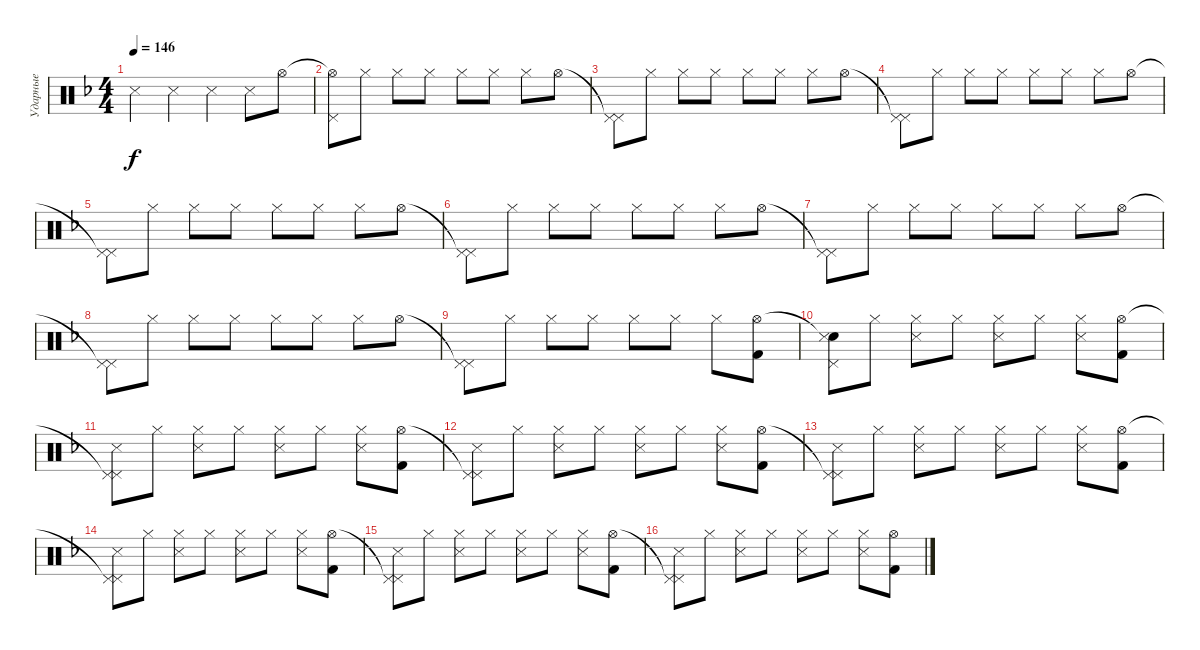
\track ("Ударные" "Ударные") {instrument percussion}
\staff {score}
\articulation defaults
\ts (4 4)
\tempo 146
\clef neutral
\ks f "Snare (side stick) 3".4{dy f} "Snare (side stick) 3".4 "Snare (side stick) 3".4 "Snare (side stick) 3".8 "Hi-Hat (open)".8
|
("Hi-Hat (open)"{t} "Pedal Hi-Hat (hit)").8 "Hi-Hat (closed)".8 "Hi-Hat (closed)".8 "Hi-Hat (closed)".8 "Hi-Hat (closed)".8 "Hi-Hat (closed)".8 "Hi-Hat (closed)".8 "Hi-Hat (open)".8 |
("Pedal Hi-Hat (hit)"{t} "Pedal Hi-Hat (hit)").8 "Hi-Hat (closed)".8 "Hi-Hat (closed)".8 "Hi-Hat (closed)".8 "Hi-Hat (closed)".8 "Hi-Hat (closed)".8 "Hi-Hat (closed)".8 "Hi-Hat (open)".8 |
("Pedal Hi-Hat (hit)"{t} "Pedal Hi-Hat (hit)").8 "Hi-Hat (closed)".8 "Hi-Hat (closed)".8 "Hi-Hat (closed)".8 "Hi-Hat (closed)".8 "Hi-Hat (closed)".8 "Hi-Hat (closed)".8 "Hi-Hat (open)".8 |
("Pedal Hi-Hat (hit)"{t} "Pedal Hi-Hat (hit)").8 "Hi-Hat (closed)".8 "Hi-Hat (closed)".8 "Hi-Hat (closed)".8 "Hi-Hat (closed)".8 "Hi-Hat (closed)".8 "Hi-Hat (closed)".8 "Hi-Hat (open)".8 |
("Pedal Hi-Hat (hit)"{t} "Pedal Hi-Hat (hit)").8 "Hi-Hat (closed)".8 "Hi-Hat (closed)".8 "Hi-Hat (closed)".8 "Hi-Hat (closed)".8 "Hi-Hat (closed)".8 "Hi-Hat (closed)".8 "Hi-Hat (open)".8 |
("Pedal Hi-Hat (hit)"{t} "Pedal Hi-Hat (hit)").8 "Hi-Hat (closed)".8 "Hi-Hat (closed)".8 "Hi-Hat (closed)".8 "Hi-Hat (closed)".8 "Hi-Hat (closed)".8 "Hi-Hat (closed)".8 "Hi-Hat (open)".8 |
("Pedal Hi-Hat (hit)"{t} "Pedal Hi-Hat (hit)").8 "Hi-Hat (closed)".8 "Hi-Hat (closed)".8 "Hi-Hat (closed)".8 "Hi-Hat (closed)".8 "Hi-Hat (closed)".8 "Hi-Hat (closed)".8 "Hi-Hat (open)".8 |
("Pedal Hi-Hat (hit)"{t} "Pedal Hi-Hat (hit)").8 "Hi-Hat (closed)".8 "Hi-Hat (closed)".8 "Hi-Hat (closed)".8 "Hi-Hat (closed)".8 "Hi-Hat (closed)".8 "Hi-Hat (closed)".8 ("Hi-Hat (open)" "Kick (hit) 2").8 |
("Snare (hit)"{t} "Pedal Hi-Hat (hit)" "Snare (side stick) 3").8 "Hi-Hat (closed)".8 ("Hi-Hat (closed)" "Snare (side stick) 3").8 "Hi-Hat (closed)".8 ("Hi-Hat (closed)" "Snare (side stick) 3").8 "Hi-Hat (closed)".8 ("Hi-Hat (closed)" "Snare (side stick) 3").8 ("Hi-Hat (open)" "Kick (hit) 2").8 |
("Pedal Hi-Hat (hit)"{t} "Pedal Hi-Hat (hit)" "Snare (side stick) 3").8 "Hi-Hat (closed)".8 ("Hi-Hat (closed)" "Snare (side stick) 3").8 "Hi-Hat (closed)".8 ("Hi-Hat (closed)" "Snare (side stick) 3").8 "Hi-Hat (closed)".8 ("Hi-Hat (closed)" "Snare (side stick) 3").8 ("Hi-Hat (open)" "Kick (hit) 2").8 |
("Pedal Hi-Hat (hit)"{t} "Pedal Hi-Hat (hit)" "Snare (side stick) 3").8 "Hi-Hat (closed)".8 ("Hi-Hat (closed)" "Snare (side stick) 3").8 "Hi-Hat (closed)".8 ("Hi-Hat (closed)" "Snare (side stick) 3").8 "Hi-Hat (closed)".8 ("Hi-Hat (closed)" "Snare (side stick) 3").8 ("Hi-Hat (open)" "Kick (hit) 2").8 |
("Pedal Hi-Hat (hit)"{t} "Pedal Hi-Hat (hit)" "Snare (side stick) 3").8 "Hi-Hat (closed)".8 ("Hi-Hat (closed)" "Snare (side stick) 3").8 "Hi-Hat (closed)".8 ("Hi-Hat (closed)" "Snare (side stick) 3").8 "Hi-Hat (closed)".8 ("Hi-Hat (closed)" "Snare (side stick) 3").8 ("Hi-Hat (open)" "Kick (hit) 2").8 |
("Pedal Hi-Hat (hit)"{t} "Pedal Hi-Hat (hit)" "Snare (side stick) 3").8 "Hi-Hat (closed)".8 ("Hi-Hat (closed)" "Snare (side stick) 3").8 "Hi-Hat (closed)".8 ("Hi-Hat (closed)" "Snare (side stick) 3").8 "Hi-Hat (closed)".8 ("Hi-Hat (closed)" "Snare (side stick) 3").8 ("Hi-Hat (open)" "Kick (hit) 2").8 |
("Pedal Hi-Hat (hit)"{t} "Pedal Hi-Hat (hit)" "Snare (side stick) 3").8 "Hi-Hat (closed)".8 ("Hi-Hat (closed)" "Snare (side stick) 3").8 "Hi-Hat (closed)".8 ("Hi-Hat (closed)" "Snare (side stick) 3").8 "Hi-Hat (closed)".8 ("Hi-Hat (closed)" "Snare (side stick) 3").8 ("Hi-Hat (open)" "Kick (hit) 2").8 |
("Pedal Hi-Hat (hit)"{t} "Pedal Hi-Hat (hit)" "Snare (side stick) 3").8 "Hi-Hat (closed)".8 ("Hi-Hat (closed)" "Snare (side stick) 3").8 "Hi-Hat (closed)".8 ("Hi-Hat (closed)" "Snare (side stick) 3").8 "Hi-Hat (closed)".8 ("Hi-Hat (closed)" "Snare (side stick) 3").8 ("Hi-Hat (open)" "Kick (hit) 2").8
